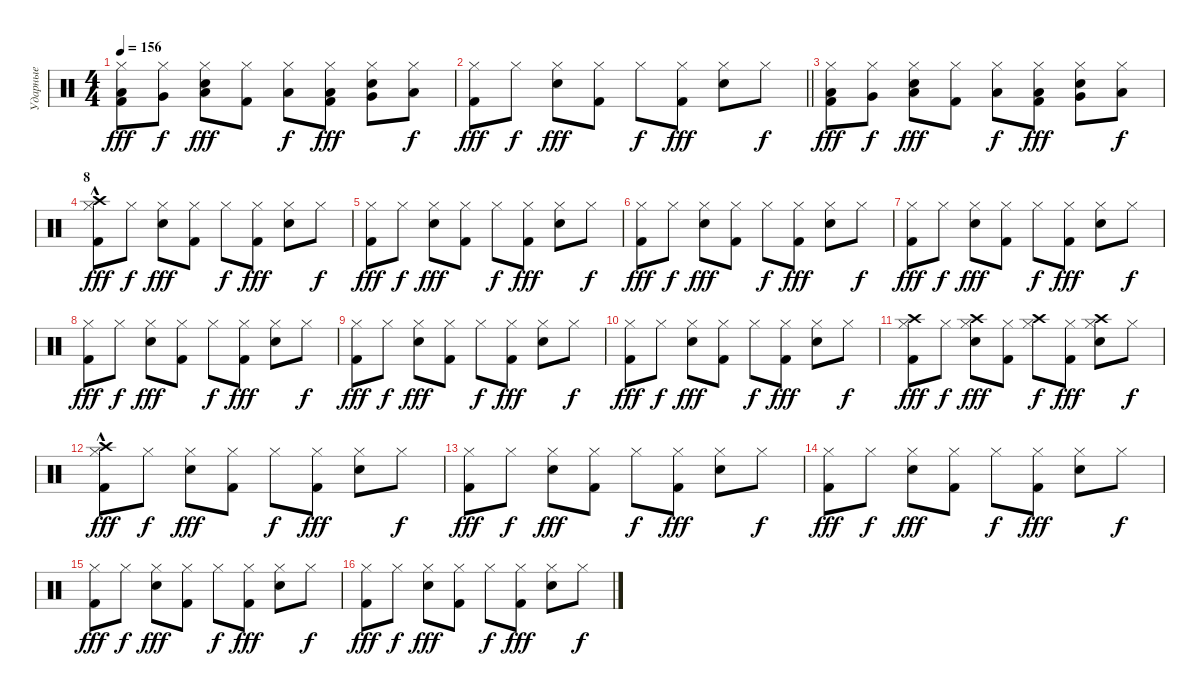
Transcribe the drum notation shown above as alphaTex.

\track ("Ударные" "Ударные") {instrument percussion}
\staff {score}
\articulation defaults
\ts (4 4)
\tempo 156
\clef neutral
\ks c
("Hi-Hat (closed)" "Kick (hit) 2" "Low Floor Tom (hit)").8{dy fff} ("Hi-Hat (closed)" "Very Low Tom (hit)").8{dy f} ("Hi-Hat (closed)" "Snare (hit) 2" "Low Tom (hit)").8{dy fff} ("Hi-Hat (closed)" "Kick (hit) 2").8 ("Hi-Hat (closed)" "Low Floor Tom (hit)").8{dy f} ("Hi-Hat (closed)" "Kick (hit) 2" "Low Floor Tom (hit)").8{dy fff} ("Hi-Hat (closed)" "Snare (hit) 2" "Very Low Tom (hit)").8 ("Hi-Hat (closed)" "Low Tom (hit)").8{dy f} |
\barLineRight lightlight
("Hi-Hat (closed)" "Kick (hit) 2").8{dy fff} "Hi-Hat (closed)".8{dy f} ("Hi-Hat (closed)" "Snare (hit) 2").8{dy fff} ("Hi-Hat (closed)" "Kick (hit) 2").8 "Hi-Hat (closed)".8{dy f} ("Hi-Hat (closed)" "Kick (hit) 2").8{dy fff} ("Hi-Hat (closed)" "Snare (hit) 2").8 "Hi-Hat (closed)".8{dy f} |
("Hi-Hat (closed)" "Kick (hit) 2" "Low Floor Tom (hit)").8{dy fff} ("Hi-Hat (closed)" "Very Low Tom (hit)").8{dy f} ("Hi-Hat (closed)" "Snare (hit) 2" "Low Tom (hit)").8{dy fff} ("Hi-Hat (closed)" "Kick (hit) 2").8 ("Hi-Hat (closed)" "Low Floor Tom (hit)").8{dy f} ("Hi-Hat (closed)" "Kick (hit) 2" "Low Floor Tom (hit)").8{dy fff} ("Hi-Hat (closed)" "Snare (hit) 2" "Very Low Tom (hit)").8 ("Hi-Hat (closed)" "Low Tom (hit)").8{dy f} |
\section ("" "8")
("Hi-Hat (closed)" "Kick (hit) 2" "Crash high (hit)"{hac}).8{dy fff} "Hi-Hat (closed)".8{dy f} ("Hi-Hat (closed)" "Snare (hit) 2").8{dy fff} ("Hi-Hat (closed)" "Kick (hit) 2").8 "Hi-Hat (closed)".8{dy f} ("Hi-Hat (closed)" "Kick (hit) 2").8{dy fff} ("Hi-Hat (closed)" "Snare (hit) 2").8 "Hi-Hat (closed)".8{dy f} |
("Hi-Hat (closed)" "Kick (hit) 2").8{dy fff} "Hi-Hat (closed)".8{dy f} ("Hi-Hat (closed)" "Snare (hit) 2").8{dy fff} ("Hi-Hat (closed)" "Kick (hit) 2").8 "Hi-Hat (closed)".8{dy f} ("Hi-Hat (closed)" "Kick (hit) 2").8{dy fff} ("Hi-Hat (closed)" "Snare (hit) 2").8 "Hi-Hat (closed)".8{dy f} |
("Hi-Hat (closed)" "Kick (hit) 2").8{dy fff} "Hi-Hat (closed)".8{dy f} ("Hi-Hat (closed)" "Snare (hit) 2").8{dy fff} ("Hi-Hat (closed)" "Kick (hit) 2").8 "Hi-Hat (closed)".8{dy f} ("Hi-Hat (closed)" "Kick (hit) 2").8{dy fff} ("Hi-Hat (closed)" "Snare (hit) 2").8 "Hi-Hat (closed)".8{dy f} |
("Hi-Hat (closed)" "Kick (hit) 2").8{dy fff} "Hi-Hat (closed)".8{dy f} ("Hi-Hat (closed)" "Snare (hit) 2").8{dy fff} ("Hi-Hat (closed)" "Kick (hit) 2").8 "Hi-Hat (closed)".8{dy f} ("Hi-Hat (closed)" "Kick (hit) 2").8{dy fff} ("Hi-Hat (closed)" "Snare (hit) 2").8 "Hi-Hat (closed)".8{dy f} |
("Hi-Hat (closed)" "Kick (hit) 2").8{dy fff} "Hi-Hat (closed)".8{dy f} ("Hi-Hat (closed)" "Snare (hit) 2").8{dy fff} ("Hi-Hat (closed)" "Kick (hit) 2").8 "Hi-Hat (closed)".8{dy f} ("Hi-Hat (closed)" "Kick (hit) 2").8{dy fff} ("Hi-Hat (closed)" "Snare (hit) 2").8 "Hi-Hat (closed)".8{dy f} |
("Hi-Hat (closed)" "Kick (hit) 2").8{dy fff} "Hi-Hat (closed)".8{dy f} ("Hi-Hat (closed)" "Snare (hit) 2").8{dy fff} ("Hi-Hat (closed)" "Kick (hit) 2").8 "Hi-Hat (closed)".8{dy f} ("Hi-Hat (closed)" "Kick (hit) 2").8{dy fff} ("Hi-Hat (closed)" "Snare (hit) 2").8 "Hi-Hat (closed)".8{dy f} |
("Hi-Hat (closed)" "Kick (hit) 2").8{dy fff} "Hi-Hat (closed)".8{dy f} ("Hi-Hat (closed)" "Snare (hit) 2").8{dy fff} ("Hi-Hat (closed)" "Kick (hit) 2").8 "Hi-Hat (closed)".8{dy f} ("Hi-Hat (closed)" "Kick (hit) 2").8{dy fff} ("Hi-Hat (closed)" "Snare (hit) 2").8 "Hi-Hat (closed)".8{dy f} |
("Hi-Hat (closed)" "Kick (hit) 2" "Crash high (hit)").8{dy fff} "Hi-Hat (closed)".8{dy f} ("Hi-Hat (closed)" "Snare (hit) 2" "Crash high (hit)").8{dy fff} ("Hi-Hat (closed)" "Kick (hit) 2").8 ("Hi-Hat (closed)" "Crash high (hit)").8{dy f} ("Hi-Hat (closed)" "Kick (hit) 2").8{dy fff} ("Hi-Hat (closed)" "Snare (hit) 2" "Crash high (hit)").8 "Hi-Hat (closed)".8{dy f} |
("Hi-Hat (closed)" "Kick (hit) 2" "Crash high (hit)"{hac}).8{dy fff} "Hi-Hat (closed)".8{dy f} ("Hi-Hat (closed)" "Snare (hit) 2").8{dy fff} ("Hi-Hat (closed)" "Kick (hit) 2").8 "Hi-Hat (closed)".8{dy f} ("Hi-Hat (closed)" "Kick (hit) 2").8{dy fff} ("Hi-Hat (closed)" "Snare (hit) 2").8 "Hi-Hat (closed)".8{dy f} |
("Hi-Hat (closed)" "Kick (hit) 2").8{dy fff} "Hi-Hat (closed)".8{dy f} ("Hi-Hat (closed)" "Snare (hit) 2").8{dy fff} ("Hi-Hat (closed)" "Kick (hit) 2").8 "Hi-Hat (closed)".8{dy f} ("Hi-Hat (closed)" "Kick (hit) 2").8{dy fff} ("Hi-Hat (closed)" "Snare (hit) 2").8 "Hi-Hat (closed)".8{dy f} |
("Hi-Hat (closed)" "Kick (hit) 2").8{dy fff} "Hi-Hat (closed)".8{dy f} ("Hi-Hat (closed)" "Snare (hit) 2").8{dy fff} ("Hi-Hat (closed)" "Kick (hit) 2").8 "Hi-Hat (closed)".8{dy f} ("Hi-Hat (closed)" "Kick (hit) 2").8{dy fff} ("Hi-Hat (closed)" "Snare (hit) 2").8 "Hi-Hat (closed)".8{dy f} |
("Hi-Hat (closed)" "Kick (hit) 2").8{dy fff} "Hi-Hat (closed)".8{dy f} ("Hi-Hat (closed)" "Snare (hit) 2").8{dy fff} ("Hi-Hat (closed)" "Kick (hit) 2").8 "Hi-Hat (closed)".8{dy f} ("Hi-Hat (closed)" "Kick (hit) 2").8{dy fff} ("Hi-Hat (closed)" "Snare (hit) 2").8 "Hi-Hat (closed)".8{dy f} |
("Hi-Hat (closed)" "Kick (hit) 2").8{dy fff} "Hi-Hat (closed)".8{dy f} ("Hi-Hat (closed)" "Snare (hit) 2").8{dy fff} ("Hi-Hat (closed)" "Kick (hit) 2").8 "Hi-Hat (closed)".8{dy f} ("Hi-Hat (closed)" "Kick (hit) 2").8{dy fff} ("Hi-Hat (closed)" "Snare (hit) 2").8 "Hi-Hat (closed)".8{dy f}
